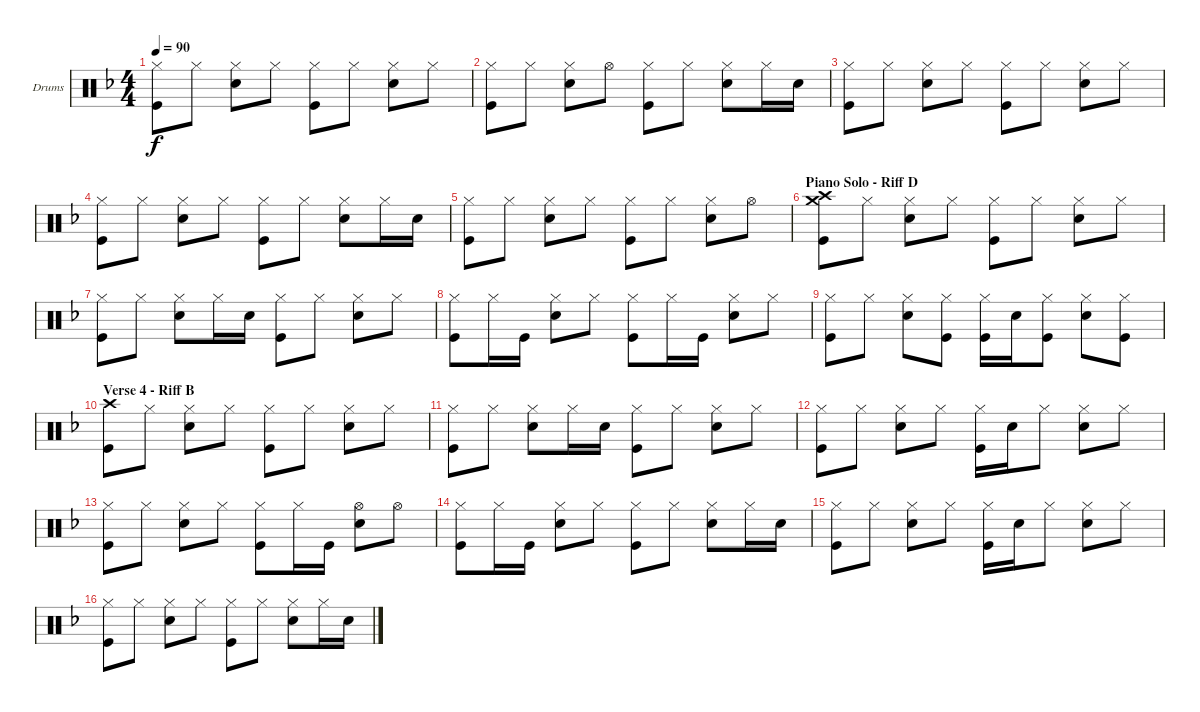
\bracketExtendMode groupsimilarinstruments
\firstSystemTrackNameOrientation horizontal
\otherSystemsTrackNameOrientation horizontal
\track ("Drumkit" "Drums") {instrument percussion}
\staff {score}
\articulation defaults
\ts (4 4)
\tempo 90
\clef neutral
\ks dminor
("Hi-Hat (closed)" "Kick (hit)").8{dy f} "Hi-Hat (closed)".8 ("Hi-Hat (closed)" "Snare (hit) 2").8 "Hi-Hat (closed)".8 ("Hi-Hat (closed)" "Kick (hit)").8 "Hi-Hat (closed)".8 ("Hi-Hat (closed)" "Snare (hit) 2").8 "Hi-Hat (closed)".8 |
("Hi-Hat (closed)" "Kick (hit)").8 "Hi-Hat (closed)".8 ("Hi-Hat (closed)" "Snare (hit) 2").8 "Hi-Hat (open)".8 ("Hi-Hat (closed)" "Kick (hit)").8 "Hi-Hat (closed)".8 ("Hi-Hat (closed)" "Snare (hit) 2").8 "Hi-Hat (closed)".16 "Snare (hit) 2".16 |
("Hi-Hat (closed)" "Kick (hit)").8 "Hi-Hat (closed)".8 ("Hi-Hat (closed)" "Snare (hit) 2").8 "Hi-Hat (closed)".8 ("Hi-Hat (closed)" "Kick (hit)").8 "Hi-Hat (closed)".8 ("Hi-Hat (closed)" "Snare (hit) 2").8 "Hi-Hat (closed)".8 |
("Hi-Hat (closed)" "Kick (hit)").8 "Hi-Hat (closed)".8 ("Hi-Hat (closed)" "Snare (hit) 2").8 "Hi-Hat (closed)".8 ("Hi-Hat (closed)" "Kick (hit)").8 "Hi-Hat (closed)".8 ("Hi-Hat (closed)" "Snare (hit) 2").8 "Hi-Hat (closed)".16 "Snare (hit) 2".16 |
("Hi-Hat (closed)" "Kick (hit)").8 "Hi-Hat (closed)".8 ("Hi-Hat (closed)" "Snare (hit) 2").8 "Hi-Hat (closed)".8 ("Hi-Hat (closed)" "Kick (hit)").8 "Hi-Hat (closed)".8 ("Hi-Hat (closed)" "Snare (hit) 2").8 "Hi-Hat (open)".8 |
\section ("" "Piano Solo - Riff D")
("Crash high (hit)" "Crash medium (hit)" "Kick (hit)").8 "Hi-Hat (closed)".8 ("Hi-Hat (closed)" "Snare (hit) 2").8 "Hi-Hat (closed)".8 ("Hi-Hat (closed)" "Kick (hit)").8 "Hi-Hat (closed)".8 ("Hi-Hat (closed)" "Snare (hit) 2").8 "Hi-Hat (closed)".8 |
("Hi-Hat (closed)" "Kick (hit)").8 "Hi-Hat (closed)".8 ("Hi-Hat (closed)" "Snare (hit) 2").8 "Hi-Hat (closed)".16 "Snare (hit) 2".16 ("Hi-Hat (closed)" "Kick (hit)").8 "Hi-Hat (closed)".8 ("Hi-Hat (closed)" "Snare (hit) 2").8 "Hi-Hat (closed)".8 |
("Hi-Hat (closed)" "Kick (hit)").8 "Hi-Hat (closed)".16 "Kick (hit)".16 ("Hi-Hat (closed)" "Snare (hit) 2").8 "Hi-Hat (closed)".8 ("Hi-Hat (closed)" "Kick (hit)").8 "Hi-Hat (closed)".16 "Kick (hit)".16 ("Hi-Hat (closed)" "Snare (hit) 2").8 "Hi-Hat (closed)".8 |
("Hi-Hat (closed)" "Kick (hit)").8 "Hi-Hat (closed)".8 ("Hi-Hat (closed)" "Snare (hit) 2").8 ("Hi-Hat (closed)" "Kick (hit)").8 ("Hi-Hat (closed)" "Kick (hit)").16 "Snare (hit) 2".16 ("Hi-Hat (closed)" "Kick (hit)").8 ("Hi-Hat (closed)" "Snare (hit) 2").8 ("Hi-Hat (closed)" "Kick (hit)").8 |
\section ("" "Verse 4 - Riff B")
("Crash high (hit)" "Kick (hit)").8 "Hi-Hat (closed)".8 ("Hi-Hat (closed)" "Snare (hit) 2").8 "Hi-Hat (closed)".8 ("Hi-Hat (closed)" "Kick (hit)").8 "Hi-Hat (closed)".8 ("Hi-Hat (closed)" "Snare (hit) 2").8 "Hi-Hat (closed)".8 |
("Hi-Hat (closed)" "Kick (hit)").8 "Hi-Hat (closed)".8 ("Hi-Hat (closed)" "Snare (hit) 2").8 "Hi-Hat (closed)".16 "Snare (hit) 2".16 ("Hi-Hat (closed)" "Kick (hit)").8 "Hi-Hat (closed)".8 ("Hi-Hat (closed)" "Snare (hit) 2").8 "Hi-Hat (closed)".8 |
("Hi-Hat (closed)" "Kick (hit)").8 "Hi-Hat (closed)".8 ("Hi-Hat (closed)" "Snare (hit) 2").8 "Hi-Hat (closed)".8 ("Hi-Hat (closed)" "Kick (hit)").16 "Snare (hit) 2".16 "Hi-Hat (closed)".8 ("Hi-Hat (closed)" "Snare (hit) 2").8 "Hi-Hat (closed)".8 |
("Hi-Hat (closed)" "Kick (hit)").8 "Hi-Hat (closed)".8 ("Hi-Hat (closed)" "Snare (hit) 2").8 "Hi-Hat (closed)".8 ("Hi-Hat (closed)" "Kick (hit)").8 "Hi-Hat (closed)".16 "Kick (hit)".16 ("Hi-Hat (open)" "Snare (hit) 2").8 "Hi-Hat (open)".8 |
("Hi-Hat (closed)" "Kick (hit)").8 "Hi-Hat (closed)".16 "Kick (hit)".16 ("Hi-Hat (closed)" "Snare (hit) 2").8 "Hi-Hat (closed)".8 ("Hi-Hat (closed)" "Kick (hit)").8 "Hi-Hat (closed)".8 ("Hi-Hat (closed)" "Snare (hit) 2").8 "Hi-Hat (closed)".16 "Snare (hit) 2".16 |
("Hi-Hat (closed)" "Kick (hit)").8 "Hi-Hat (closed)".8 ("Hi-Hat (closed)" "Snare (hit) 2").8 "Hi-Hat (closed)".8 ("Hi-Hat (closed)" "Kick (hit)").16 "Snare (hit) 2".16 "Hi-Hat (closed)".8 ("Hi-Hat (closed)" "Snare (hit) 2").8 "Hi-Hat (closed)".8 |
("Hi-Hat (closed)" "Kick (hit)").8 "Hi-Hat (closed)".8 ("Hi-Hat (closed)" "Snare (hit) 2").8 "Hi-Hat (closed)".8 ("Hi-Hat (closed)" "Kick (hit)").8 "Hi-Hat (closed)".8 ("Hi-Hat (closed)" "Snare (hit) 2").8 "Hi-Hat (closed)".16 "Snare (hit) 2".16
